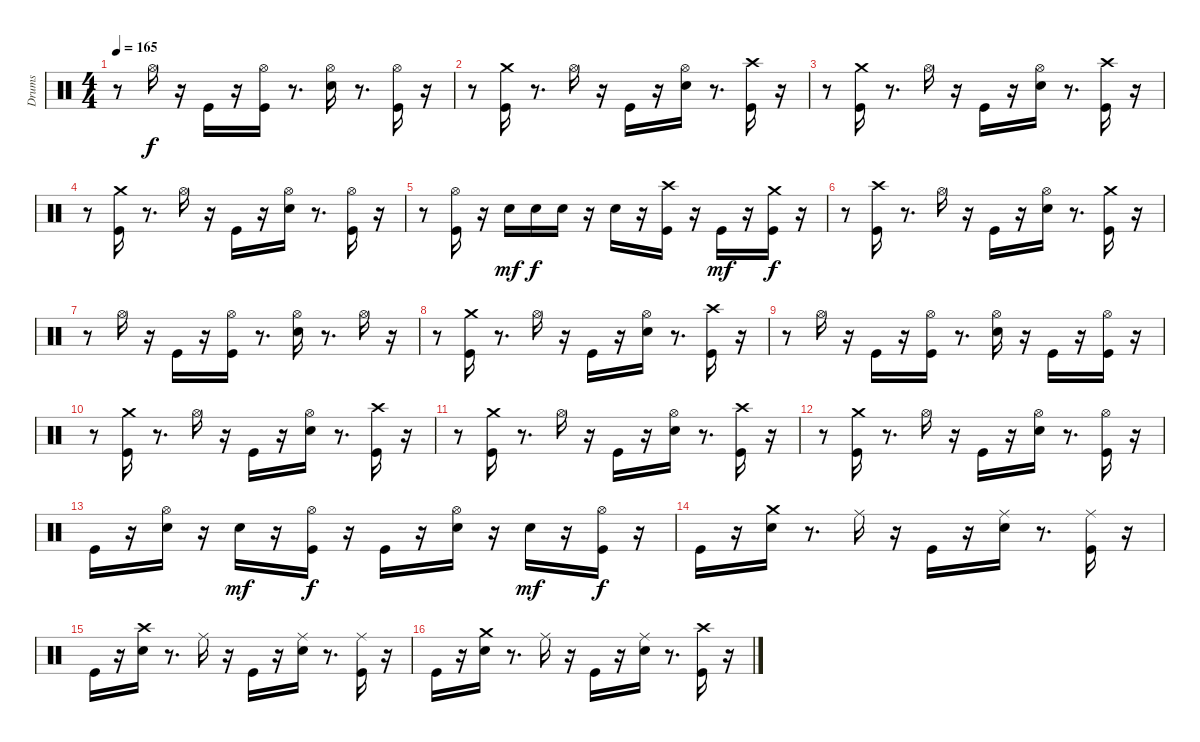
\track ("Drums" "Drums") {instrument percussion}
\staff {score}
\articulation defaults
\ts (4 4)
\tempo 165
\clef neutral
\ks c
r.8{dy f} "Hi-Hat (open)".16 r.16 "Kick (hit)".16 r.16 ("Kick (hit)" "Hi-Hat (open)").16 r.8{d} ("Electric Snare (hit)" "Hi-Hat (open)").16 r.8{d} ("Kick (hit)" "Hi-Hat (open)").16 r.16 |
r.8 ("Kick (hit)" "Crash medium (hit)").16 r.8{d} "Hi-Hat (open)".16 r.16 "Kick (hit)".16 r.16 ("Electric Snare (hit)" "Hi-Hat (open)").16 r.8{d} ("Kick (hit)" "Crash high (hit)").16 r.16 |
r.8 ("Kick (hit)" "Crash medium (hit)").16 r.8{d} "Hi-Hat (open)".16 r.16 "Kick (hit)".16 r.16 ("Electric Snare (hit)" "Hi-Hat (open)").16 r.8{d} ("Crash high (hit)" "Kick (hit)").16 r.16 |
r.8 ("Kick (hit)" "Crash medium (hit)").16 r.8{d} "Hi-Hat (open)".16 r.16 "Kick (hit)".16 r.16 ("Electric Snare (hit)" "Hi-Hat (open)").16 r.8{d} ("Kick (hit)" "Hi-Hat (open)").16 r.16 |
r.8 ("Hi-Hat (open)" "Kick (hit)").16 r.16 "Electric Snare (hit)".16{dy mf} "Electric Snare (hit)".16{dy f} "Electric Snare (hit)".16 r.16 "Electric Snare (hit)".16 r.16 ("Kick (hit)" "Crash high (hit)").16 r.16 "Kick (hit)".16{dy mf} r.16 ("Crash medium (hit)" "Kick (hit)").16{dy f} r.16 |
r.8 ("Kick (hit)" "Crash high (hit)").16 r.8{d} "Hi-Hat (open)".16 r.16 "Kick (hit)".16 r.16 ("Electric Snare (hit)" "Hi-Hat (open)").16 r.8{d} ("Kick (hit)" "Crash medium (hit)").16 r.16 |
r.8 "Hi-Hat (open)".16 r.16 "Kick (hit)".16 r.16 ("Kick (hit)" "Hi-Hat (open)").16 r.8{d} ("Electric Snare (hit)" "Hi-Hat (open)").16 r.8{d} "Hi-Hat (open)".16 r.16 |
r.8 ("Kick (hit)" "Crash medium (hit)").16 r.8{d} "Hi-Hat (open)".16 r.16 "Kick (hit)".16 r.16 ("Electric Snare (hit)" "Hi-Hat (open)").16 r.8{d} ("Kick (hit)" "Crash high (hit)").16 r.16 |
r.8 "Hi-Hat (open)".16 r.16 "Kick (hit)".16 r.16 ("Kick (hit)" "Hi-Hat (open)").16 r.8{d} ("Electric Snare (hit)" "Hi-Hat (open)").16 r.16 "Kick (hit)".16 r.16 ("Kick (hit)" "Hi-Hat (open)").16 r.16 |
r.8 ("Kick (hit)" "Crash medium (hit)").16 r.8{d} "Hi-Hat (open)".16 r.16 "Kick (hit)".16 r.16 ("Electric Snare (hit)" "Hi-Hat (open)").16 r.8{d} ("Crash high (hit)" "Kick (hit)").16 r.16 |
r.8 ("Kick (hit)" "Crash medium (hit)").16 r.8{d} "Hi-Hat (open)".16 r.16 "Kick (hit)".16 r.16 ("Electric Snare (hit)" "Hi-Hat (open)").16 r.8{d} ("Kick (hit)" "Crash high (hit)").16 r.16 |
r.8 ("Kick (hit)" "Crash medium (hit)").16 r.8{d} "Hi-Hat (open)".16 r.16 "Kick (hit)".16 r.16 ("Electric Snare (hit)" "Hi-Hat (open)").16 r.8{d} ("Kick (hit)" "Hi-Hat (open)").16 r.16 |
"Kick (hit)".16 r.16 ("Hi-Hat (open)" "Electric Snare (hit)").16 r.16 "Electric Snare (hit)".16{dy mf} r.16 ("Hi-Hat (open)" "Kick (hit)").16{dy f} r.16 "Kick (hit)".16 r.16 ("Hi-Hat (open)" "Electric Snare (hit)").16 r.16 "Electric Snare (hit)".16{dy mf} r.16 ("Hi-Hat (open)" "Kick (hit)").16{dy f} r.16 |
"Kick (hit)".16 r.16 ("Electric Snare (hit)" "Crash medium (hit)").16 r.8{d} "Ride (middle)".16 r.16 "Kick (hit)".16 r.16 ("Electric Snare (hit)" "Ride (middle)").16 r.8{d} ("Kick (hit)" "Ride (middle)").16 r.16 |
"Kick (hit)".16 r.16 ("Electric Snare (hit)" "Crash high (hit)").16 r.8{d} "Ride (middle)".16 r.16 "Kick (hit)".16 r.16 ("Electric Snare (hit)" "Ride (middle)").16 r.8{d} ("Kick (hit)" "Ride (middle)").16 r.16 |
"Kick (hit)".16 r.16 ("Electric Snare (hit)" "Crash medium (hit)").16 r.8{d} "Ride (middle)".16 r.16 "Kick (hit)".16 r.16 ("Electric Snare (hit)" "Ride (middle)").16 r.8{d} ("Kick (hit)" "Crash high (hit)").16 r.16
